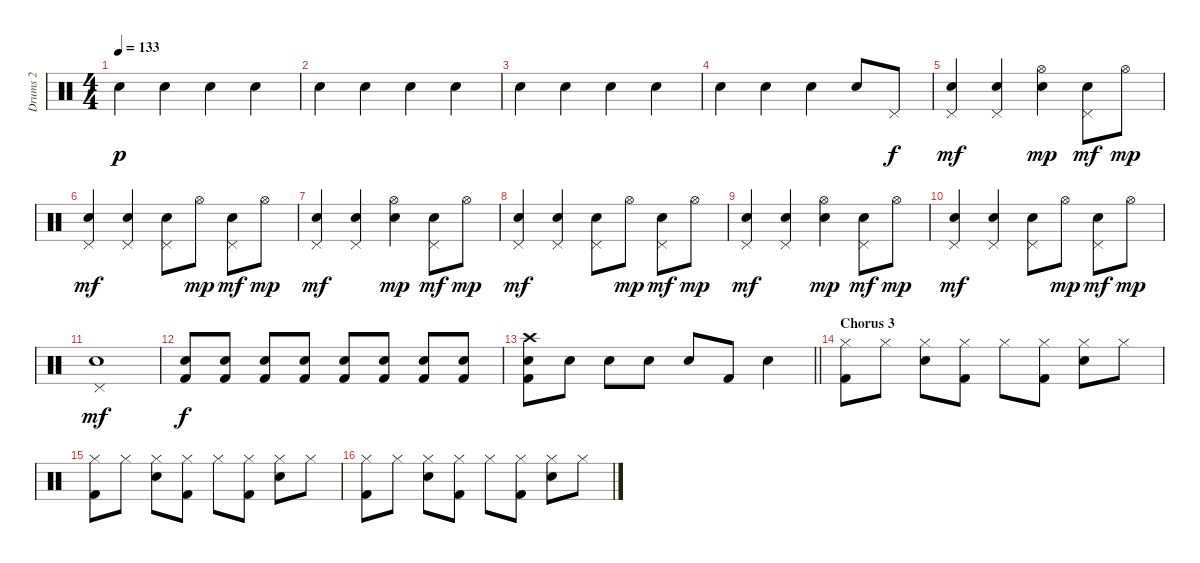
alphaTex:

\track ("Drums 2" "Drums 2") {instrument percussion}
\staff {score}
\articulation defaults
\ts (4 4)
\tempo 133
\clef neutral
\ks c "Snare (hit) 2".4{dy p} "Snare (hit) 2".4 "Snare (hit) 2".4 "Snare (hit) 2".4
|
"Snare (hit) 2".4 "Snare (hit) 2".4 "Snare (hit) 2".4 "Snare (hit) 2".4 |
"Snare (hit) 2".4 "Snare (hit) 2".4 "Snare (hit) 2".4 "Snare (hit) 2".4 |
"Snare (hit) 2".4 "Snare (hit) 2".4 "Snare (hit) 2".4 "Snare (hit) 2".8 "Pedal Hi-Hat (hit)".8{dy f} |
("Snare (hit) 2" "Pedal Hi-Hat (hit)").4{dy mf} ("Snare (hit) 2" "Pedal Hi-Hat (hit)").4 ("Snare (hit) 2" "Hi-Hat (open)").4{dy mp} ("Snare (hit) 2" "Pedal Hi-Hat (hit)").8{dy mf} "Hi-Hat (open)".8{dy mp} |
("Snare (hit) 2" "Pedal Hi-Hat (hit)").4{dy mf} ("Snare (hit) 2" "Pedal Hi-Hat (hit)").4 ("Snare (hit) 2" "Pedal Hi-Hat (hit)").8 "Hi-Hat (open)".8{dy mp} ("Snare (hit) 2" "Pedal Hi-Hat (hit)").8{dy mf} "Hi-Hat (open)".8{dy mp} |
("Snare (hit) 2" "Pedal Hi-Hat (hit)").4{dy mf} ("Snare (hit) 2" "Pedal Hi-Hat (hit)").4 ("Snare (hit) 2" "Hi-Hat (open)").4{dy mp} ("Snare (hit) 2" "Pedal Hi-Hat (hit)").8{dy mf} "Hi-Hat (open)".8{dy mp} |
("Snare (hit) 2" "Pedal Hi-Hat (hit)").4{dy mf} ("Snare (hit) 2" "Pedal Hi-Hat (hit)").4 ("Snare (hit) 2" "Pedal Hi-Hat (hit)").8 "Hi-Hat (open)".8{dy mp} ("Snare (hit) 2" "Pedal Hi-Hat (hit)").8{dy mf} "Hi-Hat (open)".8{dy mp} |
("Snare (hit) 2" "Pedal Hi-Hat (hit)").4{dy mf} ("Snare (hit) 2" "Pedal Hi-Hat (hit)").4 ("Snare (hit) 2" "Hi-Hat (open)").4{dy mp} ("Snare (hit) 2" "Pedal Hi-Hat (hit)").8{dy mf} "Hi-Hat (open)".8{dy mp} |
("Snare (hit) 2" "Pedal Hi-Hat (hit)").4{dy mf} ("Snare (hit) 2" "Pedal Hi-Hat (hit)").4 ("Snare (hit) 2" "Pedal Hi-Hat (hit)").8 "Hi-Hat (open)".8{dy mp} ("Snare (hit) 2" "Pedal Hi-Hat (hit)").8{dy mf} "Hi-Hat (open)".8{dy mp} |
("Snare (hit) 2" "Pedal Hi-Hat (hit)").1{dy mf} |
("Electric Snare (hit)" "Kick (hit) 2").8{dy f} ("Electric Snare (hit)" "Kick (hit) 2").8 ("Electric Snare (hit)" "Kick (hit) 2").8 ("Electric Snare (hit)" "Kick (hit) 2").8 ("Electric Snare (hit)" "Kick (hit) 2").8 ("Electric Snare (hit)" "Kick (hit) 2").8 ("Electric Snare (hit)" "Kick (hit) 2").8 ("Electric Snare (hit)" "Kick (hit) 2").8 |
\barLineRight lightlight
("Crash high (hit)" "Snare (hit) 2" "Kick (hit) 2").8 "Electric Snare (hit)".8 "Electric Snare (hit)".8 "Electric Snare (hit)".8 "Electric Snare (hit)".8 "Kick (hit) 2".8 "Snare (hit) 2".4 |
\section ("" "Chorus 3")
("Hi-Hat (closed)" "Kick (hit) 2").8 "Hi-Hat (closed)".8 ("Snare (hit) 2" "Hi-Hat (closed)").8 ("Hi-Hat (closed)" "Kick (hit) 2").8 "Hi-Hat (closed)".8 ("Hi-Hat (closed)" "Kick (hit) 2").8 ("Snare (hit) 2" "Hi-Hat (closed)").8 "Hi-Hat (closed)".8 |
("Hi-Hat (closed)" "Kick (hit) 2").8 "Hi-Hat (closed)".8 ("Snare (hit) 2" "Hi-Hat (closed)").8 ("Hi-Hat (closed)" "Kick (hit) 2").8 "Hi-Hat (closed)".8 ("Hi-Hat (closed)" "Kick (hit) 2").8 ("Snare (hit) 2" "Hi-Hat (closed)").8 "Hi-Hat (closed)".8 |
("Hi-Hat (closed)" "Kick (hit) 2").8 "Hi-Hat (closed)".8 ("Snare (hit) 2" "Hi-Hat (closed)").8 ("Hi-Hat (closed)" "Kick (hit) 2").8 "Hi-Hat (closed)".8 ("Hi-Hat (closed)" "Kick (hit) 2").8 ("Snare (hit) 2" "Hi-Hat (closed)").8 "Hi-Hat (closed)".8
